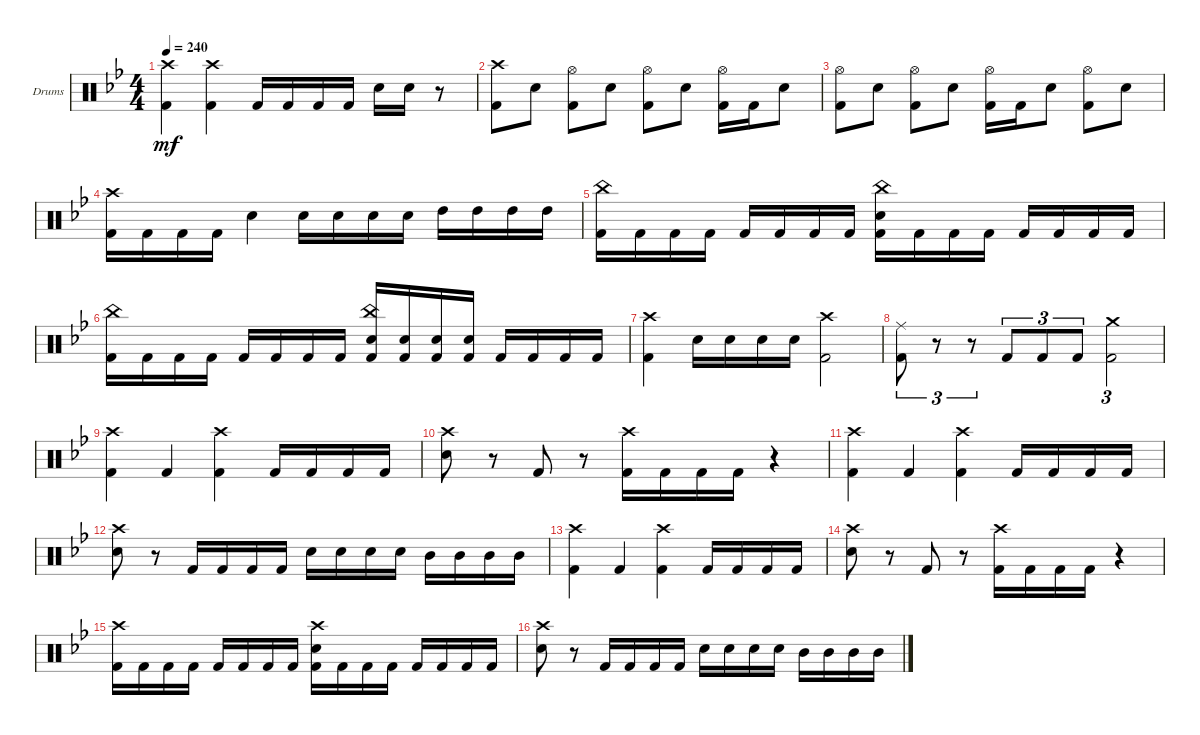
\defaultSystemsLayout 4
\bracketExtendMode groupsimilarinstruments
\firstSystemTrackNameOrientation horizontal
\otherSystemsTrackNameOrientation horizontal
\track ("Drumkit" "Drums") {instrument percussion}
\staff {score}
\articulation defaults
\ts (4 4)
\tempo 240
\clef neutral
\scale
0.474178
\ks bb
("Crash high (hit)"{acc forcenatural} "Kick (hit) 2"{acc forcenatural}).4{dy mf beam Down} ("Kick (hit) 2"{acc forcenatural} "Crash high (hit)"{acc forcenatural}).4{beam Down} "Kick (hit) 2"{acc forcenatural}.16{beam Up} "Kick (hit) 2"{acc forcenatural}.16{beam Up} "Kick (hit) 2"{acc forcenatural}.16{beam Up} "Kick (hit) 2"{acc forcenatural}.16{beam Up} "Snare (hit) 2"{acc forcenatural}.16{beam Down} "Snare (hit) 2"{acc forcenatural}.16{beam Down} r.8{beam Down} |
\scale
0.262911 ("Crash high (hit)"{acc forcenatural} "Kick (hit) 2"{acc forcenatural}).8{beam Down} "Snare (hit) 2"{acc forcenatural}.8{beam Down} ("Kick (hit) 2"{acc forcenatural} "Hi-Hat (open)"{acc forcenatural}).8{beam Down} "Snare (hit) 2"{acc forcenatural}.8{beam Down} ("Kick (hit) 2"{acc forcenatural} "Hi-Hat (open)"{acc forcenatural}).8{beam Down} "Snare (hit) 2"{acc forcenatural}.8{beam Down} ("Kick (hit) 2"{acc forcenatural} "Hi-Hat (open)"{acc forcenatural}).16{beam Down} "Kick (hit) 2"{acc forcenatural}.16{beam Down} "Snare (hit) 2"{acc forcenatural}.8{beam Down} |
\scale
0.262911 ("Kick (hit) 2"{acc forcenatural} "Hi-Hat (open)"{acc forcenatural}).8{beam Down} "Snare (hit) 2"{acc forcenatural}.8{beam Down} ("Kick (hit) 2"{acc forcenatural} "Hi-Hat (open)"{acc forcenatural}).8{beam Down} "Snare (hit) 2"{acc forcenatural}.8{beam Down} ("Kick (hit) 2"{acc forcenatural} "Hi-Hat (open)"{acc forcenatural}).16{beam Down} "Kick (hit) 2"{acc forcenatural}.16{beam Down} "Snare (hit) 2"{acc forcenatural}.8{beam Down} ("Kick (hit) 2"{acc forcenatural} "Hi-Hat (open)"{acc forcenatural}).8{beam Down} "Snare (hit) 2"{acc forcenatural}.8{beam Down} |
\scale
0.333333 ("Kick (hit) 2"{acc forcenatural} "Crash high (hit)"{acc forcenatural}).16{beam Down} "Kick (hit) 2"{acc forcenatural}.16{beam Down} "Kick (hit) 2"{acc forcenatural}.16{beam Down} "Kick (hit) 2"{acc forcenatural}.16{beam Down} "Snare (hit) 2"{acc forcenatural}.4{beam Down} "Snare (hit) 2"{acc forcenatural}.16{beam Down} "Snare (hit) 2"{acc forcenatural}.16{beam Down} "Snare (hit) 2"{acc forcenatural}.16{beam Down} "Snare (hit) 2"{acc forcenatural}.16{beam Down} "High Tom (hit)"{acc forcenatural}.16{beam Down} "High Tom (hit)"{acc forcenatural}.16{beam Down} "High Tom (hit)"{acc forcenatural}.16{beam Down} "High Tom (hit)"{acc forcenatural}.16{beam Down} |
\scale
0.333333 ("Kick (hit) 2"{acc forcenatural} "China (hit)"{acc forcenatural}).16{beam Down} "Kick (hit) 2"{acc forcenatural}.16{beam Down} "Kick (hit) 2"{acc forcenatural}.16{beam Down} "Kick (hit) 2"{acc forcenatural}.16{beam Down} "Kick (hit) 2"{acc forcenatural}.16{beam Up} "Kick (hit) 2"{acc forcenatural}.16{beam Up} "Kick (hit) 2"{acc forcenatural}.16{beam Up} "Kick (hit) 2"{acc forcenatural}.16{beam Up} ("Kick (hit) 2"{acc forcenatural} "Snare (hit) 2"{acc forcenatural} "China (hit)"{acc forcenatural}).16{beam Down} "Kick (hit) 2"{acc forcenatural}.16{beam Down} "Kick (hit) 2"{acc forcenatural}.16{beam Down} "Kick (hit) 2"{acc forcenatural}.16{beam Down} "Kick (hit) 2"{acc forcenatural}.16{beam Up} "Kick (hit) 2"{acc forcenatural}.16{beam Up} "Kick (hit) 2"{acc forcenatural}.16{beam Up} "Kick (hit) 2"{acc forcenatural}.16{beam Up} |
\scale
0.333333 ("Kick (hit) 2"{acc forcenatural} "China (hit)"{acc forcenatural}).16{beam Down} "Kick (hit) 2"{acc forcenatural}.16{beam Down} "Kick (hit) 2"{acc forcenatural}.16{beam Down} "Kick (hit) 2"{acc forcenatural}.16{beam Down} "Kick (hit) 2"{acc forcenatural}.16{beam Up} "Kick (hit) 2"{acc forcenatural}.16{beam Up} "Kick (hit) 2"{acc forcenatural}.16{beam Up} "Kick (hit) 2"{acc forcenatural}.16{beam Up} ("Kick (hit) 2"{acc forcenatural} "Snare (hit) 2"{acc forcenatural} "China (hit)"{acc forcenatural}).16{beam Up} ("Kick (hit) 2"{acc forcenatural} "Snare (hit) 2"{acc forcenatural}).16{beam Up} ("Kick (hit) 2"{acc forcenatural} "Snare (hit) 2"{acc forcenatural}).16{beam Up} ("Kick (hit) 2"{acc forcenatural} "Snare (hit) 2"{acc forcenatural}).16{beam Up} "Kick (hit) 2"{acc forcenatural}.16{beam Up} "Kick (hit) 2"{acc forcenatural}.16{beam Up} "Kick (hit) 2"{acc forcenatural}.16{beam Up} "Kick (hit) 2"{acc forcenatural}.16{beam Up} |
\scale
0.333333 ("Crash high (hit)"{acc forcenatural} "Kick (hit) 2"{acc forcenatural}).4{beam Down} "Snare (hit) 2"{acc forcenatural}.16{beam Down} "Snare (hit) 2"{acc forcenatural}.16{beam Down} "Snare (hit) 2"{acc forcenatural}.16{beam Down} "Snare (hit) 2"{acc forcenatural}.16{beam Down} ("Crash high (hit)"{acc forcenatural} "Kick (hit) 2"{acc forcenatural}).2{beam Down} |
\scale
0.333333 ("Ride (middle)"{acc forcenatural} "Kick (hit) 2"{acc forcenatural}).8{tu (3 2) beam Down} r.8{tu (3 2) beam Down} r.8{tu (3 2) beam Down} "Kick (hit) 2"{acc forcenatural}.8{tu (3 2) beam Up} "Kick (hit) 2"{acc forcenatural}.8{tu (3 2) beam Up} "Kick (hit) 2"{acc forcenatural}.8{tu (3 2) beam Up} ("Kick (hit) 2"{acc forcenatural} "Crash medium (hit)"{acc forcenatural}).2{tu (3 2) beam Down} |
\scale
0.333333 ("Kick (hit) 2"{acc forcenatural} "Crash high (hit)"{acc forcenatural}).4{beam Down} "Kick (hit) 2"{acc forcenatural}.4{beam Up} ("Kick (hit) 2"{acc forcenatural} "Crash high (hit)"{acc forcenatural}).4{beam Down} "Kick (hit) 2"{acc forcenatural}.16{beam Up} "Kick (hit) 2"{acc forcenatural}.16{beam Up} "Kick (hit) 2"{acc forcenatural}.16{beam Up} "Kick (hit) 2"{acc forcenatural}.16{beam Up} |
\scale
0.333333 ("Snare (hit) 2"{acc forcenatural} "Crash high (hit)"{acc forcenatural}).8 r.8 "Kick (hit) 2"{acc forcenatural}.8 r.8 ("Kick (hit) 2"{acc forcenatural} "Crash high (hit)"{acc forcenatural}).16 "Kick (hit) 2"{acc forcenatural}.16 "Kick (hit) 2"{acc forcenatural}.16 "Kick (hit) 2"{acc forcenatural}.16 r.4 |
\scale
0.333333 ("Kick (hit) 2"{acc forcenatural} "Crash high (hit)"{acc forcenatural}).4 "Kick (hit) 2"{acc forcenatural}.4 ("Kick (hit) 2"{acc forcenatural} "Crash high (hit)"{acc forcenatural}).4 "Kick (hit) 2"{acc forcenatural}.16 "Kick (hit) 2"{acc forcenatural}.16 "Kick (hit) 2"{acc forcenatural}.16 "Kick (hit) 2"{acc forcenatural}.16 |
\scale
0.333333 ("Snare (hit) 2"{acc forcenatural} "Crash high (hit)"{acc forcenatural}).8 r.8 "Kick (hit) 2"{acc forcenatural}.16 "Kick (hit) 2"{acc forcenatural}.16 "Kick (hit) 2"{acc forcenatural}.16 "Kick (hit) 2"{acc forcenatural}.16 "Snare (hit) 2"{acc forcenatural}.16 "Snare (hit) 2"{acc forcenatural}.16 "Snare (hit) 2"{acc forcenatural}.16 "Snare (hit) 2"{acc forcenatural}.16 "Mid Tom (hit)"{acc forcenatural}.16 "Mid Tom (hit)"{acc forcenatural}.16 "Mid Tom (hit)"{acc forcenatural}.16 "Mid Tom (hit)"{acc forcenatural}.16 |
\scale
0.333333 ("Kick (hit) 2"{acc forcenatural} "Crash high (hit)"{acc forcenatural}).4 "Kick (hit) 2"{acc forcenatural}.4 ("Kick (hit) 2"{acc forcenatural} "Crash high (hit)"{acc forcenatural}).4 "Kick (hit) 2"{acc forcenatural}.16 "Kick (hit) 2"{acc forcenatural}.16 "Kick (hit) 2"{acc forcenatural}.16 "Kick (hit) 2"{acc forcenatural}.16 |
\scale
0.333333 ("Snare (hit) 2"{acc forcenatural} "Crash high (hit)"{acc forcenatural}).8 r.8 "Kick (hit) 2"{acc forcenatural}.8 r.8 ("Kick (hit) 2"{acc forcenatural} "Crash high (hit)"{acc forcenatural}).16 "Kick (hit) 2"{acc forcenatural}.16 "Kick (hit) 2"{acc forcenatural}.16 "Kick (hit) 2"{acc forcenatural}.16 r.4 |
\scale
0.333333 ("Kick (hit) 2"{acc forcenatural} "Crash high (hit)"{acc forcenatural}).16 "Kick (hit) 2"{acc forcenatural}.16 "Kick (hit) 2"{acc forcenatural}.16 "Kick (hit) 2"{acc forcenatural}.16 "Kick (hit) 2"{acc forcenatural}.16 "Kick (hit) 2"{acc forcenatural}.16 "Kick (hit) 2"{acc forcenatural}.16 "Kick (hit) 2"{acc forcenatural}.16 ("Kick (hit) 2"{acc forcenatural} "Crash high (hit)"{acc forcenatural} "Snare (hit) 2"{acc forcenatural}).16 "Kick (hit) 2"{acc forcenatural}.16 "Kick (hit) 2"{acc forcenatural}.16 "Kick (hit) 2"{acc forcenatural}.16 "Kick (hit) 2"{acc forcenatural}.16 "Kick (hit) 2"{acc forcenatural}.16 "Kick (hit) 2"{acc forcenatural}.16 "Kick (hit) 2"{acc forcenatural}.16 |
\scale
0.333333 ("Snare (hit) 2"{acc forcenatural} "Crash high (hit)"{acc forcenatural}).8 r.8 "Kick (hit) 2"{acc forcenatural}.16 "Kick (hit) 2"{acc forcenatural}.16 "Kick (hit) 2"{acc forcenatural}.16 "Kick (hit) 2"{acc forcenatural}.16 "Snare (hit) 2"{acc forcenatural}.16 "Snare (hit) 2"{acc forcenatural}.16 "Snare (hit) 2"{acc forcenatural}.16 "Snare (hit) 2"{acc forcenatural}.16 "Mid Tom (hit)"{acc forcenatural}.16 "Mid Tom (hit)"{acc forcenatural}.16 "Mid Tom (hit)"{acc forcenatural}.16 "Mid Tom (hit)"{acc forcenatural}.16
